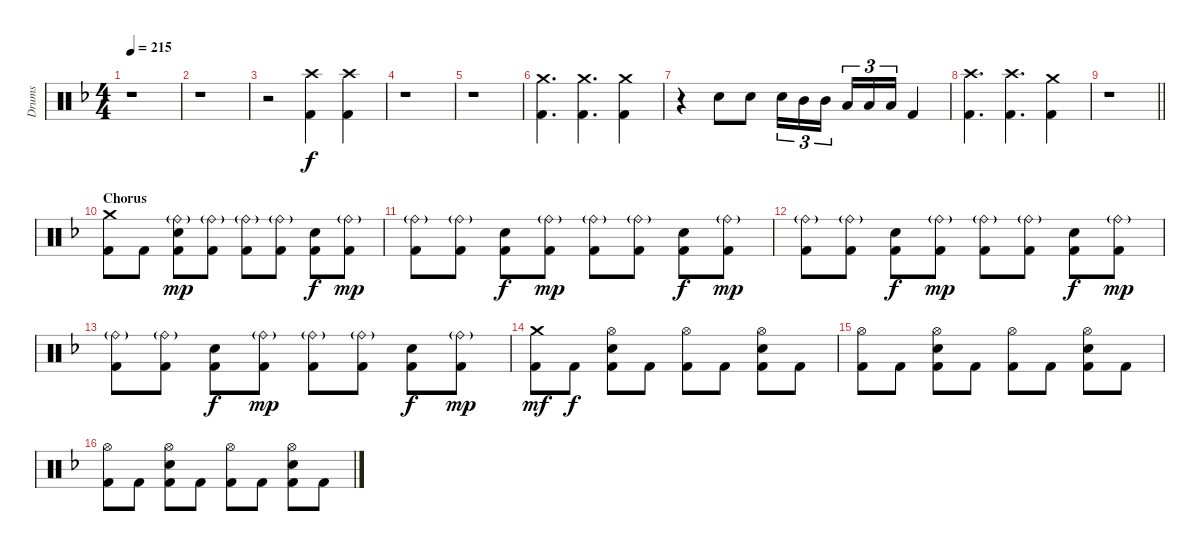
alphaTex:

\track ("Drums" "Drums") {instrument percussion}
\staff {score}
\articulation defaults
\ts (4 4)
\tempo 215
\clef neutral
\ks f
r.1{dy ff} |
r.1 |
r.2 ("Crash high (hit)" "Kick (hit) 2").4{dy f} ("Crash high (hit)" "Kick (hit) 2").4 |
r.1 |
r.1 |
("Crash medium (hit)" "Kick (hit) 2").4{d} ("Crash medium (hit)" "Kick (hit) 2").4{d} ("Crash medium (hit)" "Kick (hit) 2").4 |
r.4 "Snare (hit) 2".8 "Snare (hit) 2".8 "Snare (hit) 2".16{tu (3 2)} "Mid Tom (hit)".16{tu (3 2)} "Mid Tom (hit)".16{tu (3 2) beam splitsecondary} "Low Tom (hit)".16{tu (3 2)} "Low Tom (hit)".16{tu (3 2)} "Low Tom (hit)".16{tu (3 2)} "Kick (hit) 2".4 |
("Crash high (hit)" "Kick (hit) 2").4{d} ("Crash high (hit)" "Kick (hit) 2").4{d} ("Crash medium (hit)" "Kick (hit) 2").4 |
\barLineRight lightlight
r.1 |
\section ("" "Chorus")
("Crash medium (hit)" "Kick (hit) 2").8 "Kick (hit) 2".8 ("Ride (bell)"{g} "Snare (hit) 2" "Kick (hit) 2").8{dy mp} ("Ride (bell)"{g} "Kick (hit) 2").8 ("Ride (bell)"{g} "Kick (hit) 2").8 ("Ride (bell)"{g} "Kick (hit) 2").8 ("Snare (hit) 2" "Kick (hit) 2").8{dy f} ("Ride (bell)"{g} "Kick (hit) 2").8{dy mp} |
("Ride (bell)"{g} "Kick (hit) 2").8 ("Ride (bell)"{g} "Kick (hit) 2").8 ("Snare (hit) 2" "Kick (hit) 2").8{dy f} ("Ride (bell)"{g} "Kick (hit) 2").8{dy mp} ("Ride (bell)"{g} "Kick (hit) 2").8 ("Ride (bell)"{g} "Kick (hit) 2").8 ("Snare (hit) 2" "Kick (hit) 2").8{dy f} ("Ride (bell)"{g} "Kick (hit) 2").8{dy mp} |
("Ride (bell)"{g} "Kick (hit) 2").8 ("Ride (bell)"{g} "Kick (hit) 2").8 ("Snare (hit) 2" "Kick (hit) 2").8{dy f} ("Ride (bell)"{g} "Kick (hit) 2").8{dy mp} ("Ride (bell)"{g} "Kick (hit) 2").8 ("Ride (bell)"{g} "Kick (hit) 2").8 ("Snare (hit) 2" "Kick (hit) 2").8{dy f} ("Ride (bell)"{g} "Kick (hit) 2").8{dy mp} |
("Ride (bell)"{g} "Kick (hit) 2").8 ("Ride (bell)"{g} "Kick (hit) 2").8 ("Snare (hit) 2" "Kick (hit) 2").8{dy f} ("Ride (bell)"{g} "Kick (hit) 2").8{dy mp} ("Ride (bell)"{g} "Kick (hit) 2").8 ("Ride (bell)"{g} "Kick (hit) 2").8 ("Snare (hit) 2" "Kick (hit) 2").8{dy f} ("Ride (bell)"{g} "Kick (hit) 2").8{dy mp} |
("Crash medium (hit)" "Kick (hit) 2").8{dy mf} "Kick (hit) 2".8{dy f} ("Hi-Hat (open)" "Snare (hit) 2" "Kick (hit) 2").8 "Kick (hit) 2".8 ("Hi-Hat (open)" "Kick (hit) 2").8 "Kick (hit) 2".8 ("Hi-Hat (open)" "Snare (hit) 2" "Kick (hit) 2").8 "Kick (hit) 2".8 |
("Hi-Hat (open)" "Kick (hit) 2").8 "Kick (hit) 2".8 ("Hi-Hat (open)" "Snare (hit) 2" "Kick (hit) 2").8 "Kick (hit) 2".8 ("Hi-Hat (open)" "Kick (hit) 2").8 "Kick (hit) 2".8 ("Hi-Hat (open)" "Snare (hit) 2" "Kick (hit) 2").8 "Kick (hit) 2".8 |
("Hi-Hat (open)" "Kick (hit) 2").8 "Kick (hit) 2".8 ("Hi-Hat (open)" "Snare (hit) 2" "Kick (hit) 2").8 "Kick (hit) 2".8 ("Hi-Hat (open)" "Kick (hit) 2").8 "Kick (hit) 2".8 ("Hi-Hat (open)" "Snare (hit) 2" "Kick (hit) 2").8 "Kick (hit) 2".8
